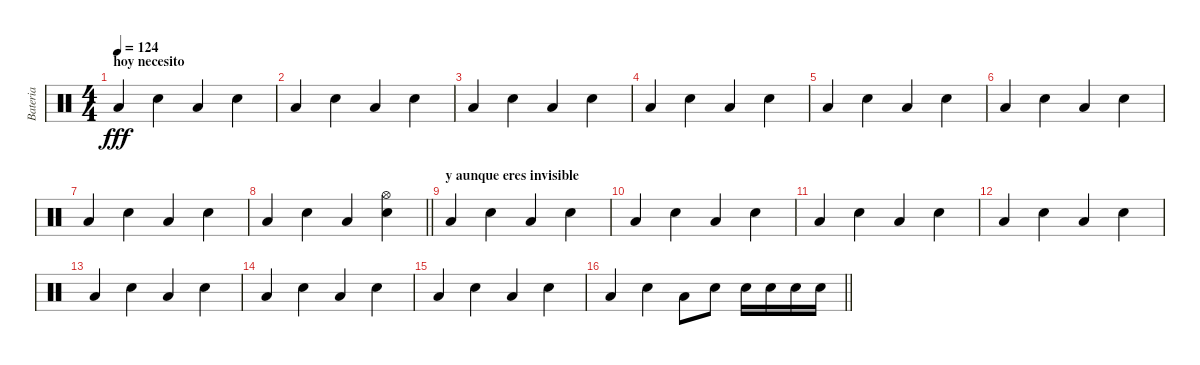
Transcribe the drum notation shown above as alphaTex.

\track ("Bateria" "Bateria") {instrument percussion}
\staff {score}
\articulation defaults
\ts (4 4)
\section ("" "hoy necesito ")
\tempo 124
\clef neutral
\ks c "Low Floor Tom (hit)".4{dy fff} "Snare (hit) 2".4 "Low Floor Tom (hit)".4 "Snare (hit) 2".4
|
"Low Floor Tom (hit)".4 "Snare (hit) 2".4 "Low Floor Tom (hit)".4 "Snare (hit) 2".4 |
"Low Floor Tom (hit)".4 "Snare (hit) 2".4 "Low Floor Tom (hit)".4 "Snare (hit) 2".4 |
"Low Floor Tom (hit)".4 "Snare (hit) 2".4 "Low Floor Tom (hit)".4 "Snare (hit) 2".4 |
"Low Floor Tom (hit)".4 "Snare (hit) 2".4 "Low Floor Tom (hit)".4 "Snare (hit) 2".4 |
"Low Floor Tom (hit)".4 "Snare (hit) 2".4 "Low Floor Tom (hit)".4 "Snare (hit) 2".4 |
"Low Floor Tom (hit)".4 "Snare (hit) 2".4 "Low Floor Tom (hit)".4 "Snare (hit) 2".4 |
\barLineRight lightlight "Low Floor Tom (hit)".4 "Snare (hit) 2".4 "Low Floor Tom (hit)".4
("Hi-Hat (open)" "Snare (hit) 2").4 |
\section ("" "y aunque eres invisible")
"Low Floor Tom (hit)".4 "Snare (hit) 2".4 "Low Floor Tom (hit)".4 "Snare (hit) 2".4 |
"Low Floor Tom (hit)".4 "Snare (hit) 2".4 "Low Floor Tom (hit)".4 "Snare (hit) 2".4 |
"Low Floor Tom (hit)".4 "Snare (hit) 2".4 "Low Floor Tom (hit)".4 "Snare (hit) 2".4 |
"Low Floor Tom (hit)".4 "Snare (hit) 2".4 "Low Floor Tom (hit)".4 "Snare (hit) 2".4 |
"Low Floor Tom (hit)".4 "Snare (hit) 2".4 "Low Floor Tom (hit)".4 "Snare (hit) 2".4 |
"Low Floor Tom (hit)".4 "Snare (hit) 2".4 "Low Floor Tom (hit)".4 "Snare (hit) 2".4 |
"Low Floor Tom (hit)".4 "Snare (hit) 2".4 "Low Floor Tom (hit)".4 "Snare (hit) 2".4 |
\barLineRight lightlight "Low Floor Tom (hit)".4 "Snare (hit) 2".4 "Low Floor Tom (hit)".8 "Snare (hit) 2".8 "Snare (hit) 2".16 "Snare (hit) 2".16 "Snare (hit) 2".16 "Snare (hit) 2".16
